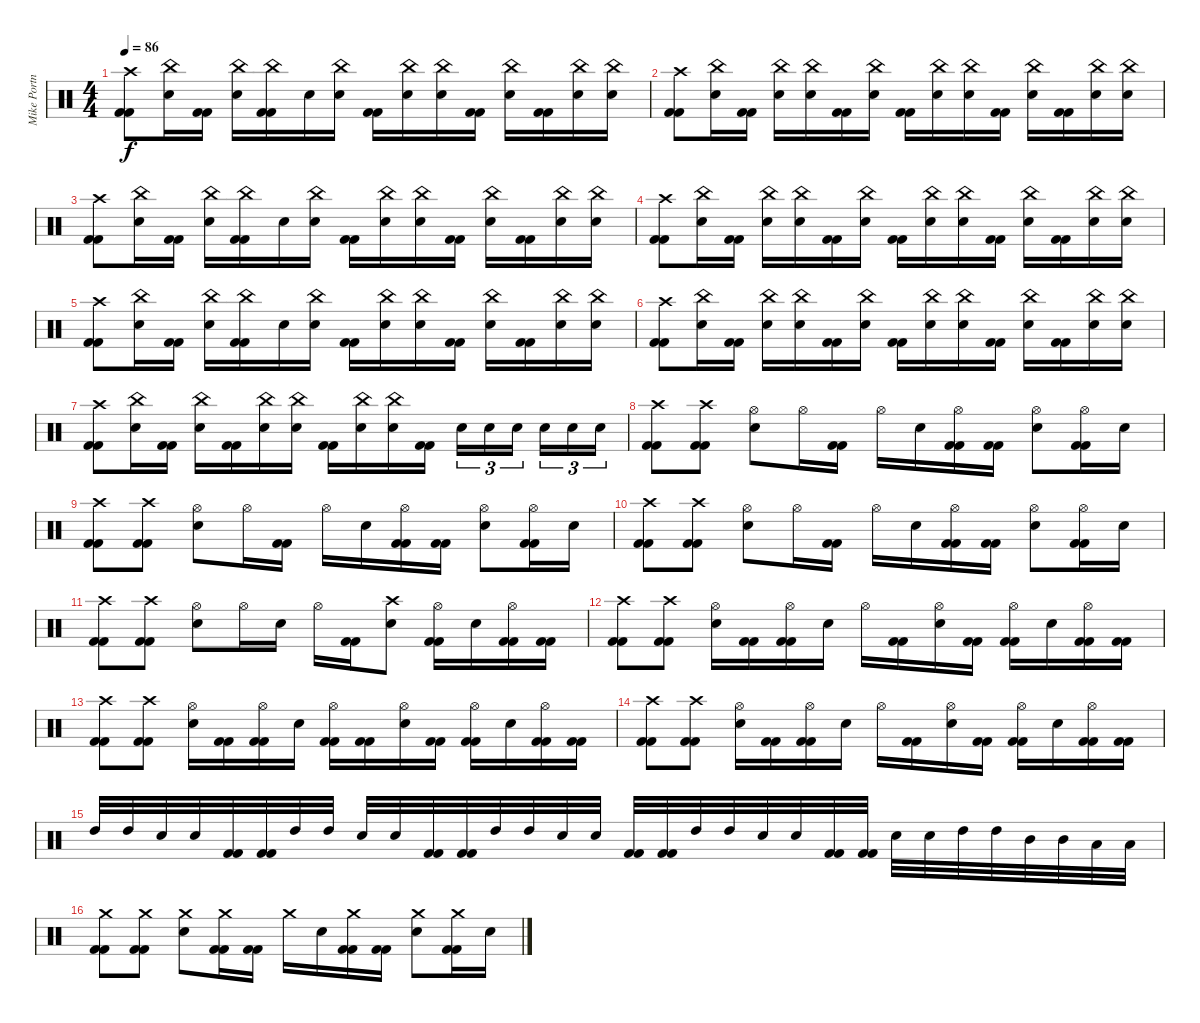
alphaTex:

\track ("Mike Portnoy - Drum" "Mike Portn") {instrument percussion}
\staff {score}
\articulation defaults
\ts (4 4)
\tempo 86
\clef neutral
\ks c
("Crash high (hit)" "Kick (hit) 2" "Kick (hit) 2").8{dy f} ("China (hit)" "Snare (hit) 2").16 ("Kick (hit) 2" "Kick (hit) 2").16 ("China (hit)" "Snare (hit) 2").16 ("China (hit)" "Kick (hit) 2" "Kick (hit) 2").16 "Snare (hit) 2".16 ("China (hit)" "Snare (hit) 2").16 ("Kick (hit) 2" "Kick (hit) 2").16 ("China (hit)" "Snare (hit) 2").16 ("China (hit)" "Snare (hit) 2").16 ("Kick (hit) 2" "Kick (hit) 2").16 ("China (hit)" "Snare (hit) 2").16 ("Kick (hit) 2" "Kick (hit) 2").16 ("China (hit)" "Snare (hit) 2").16 ("China (hit)" "Snare (hit) 2").16 |
("Crash high (hit)" "Kick (hit) 2" "Kick (hit) 2").8 ("China (hit)" "Snare (hit) 2").16 ("Kick (hit) 2" "Kick (hit) 2").16 ("China (hit)" "Snare (hit) 2").16 ("China (hit)" "Snare (hit) 2").16 ("Kick (hit) 2" "Kick (hit) 2").16 ("China (hit)" "Snare (hit) 2").16 ("Kick (hit) 2" "Kick (hit) 2").16 ("China (hit)" "Snare (hit) 2").16 ("China (hit)" "Snare (hit) 2").16 ("Kick (hit) 2" "Kick (hit) 2").16 ("China (hit)" "Snare (hit) 2").16 ("Kick (hit) 2" "Kick (hit) 2").16 ("China (hit)" "Snare (hit) 2").16 ("China (hit)" "Snare (hit) 2").16 |
("Crash high (hit)" "Kick (hit) 2" "Kick (hit) 2").8 ("China (hit)" "Snare (hit) 2").16 ("Kick (hit) 2" "Kick (hit) 2").16 ("China (hit)" "Snare (hit) 2").16 ("China (hit)" "Kick (hit) 2" "Kick (hit) 2").16 "Snare (hit) 2".16 ("China (hit)" "Snare (hit) 2").16 ("Kick (hit) 2" "Kick (hit) 2").16 ("China (hit)" "Snare (hit) 2").16 ("China (hit)" "Snare (hit) 2").16 ("Kick (hit) 2" "Kick (hit) 2").16 ("China (hit)" "Snare (hit) 2").16 ("Kick (hit) 2" "Kick (hit) 2").16 ("China (hit)" "Snare (hit) 2").16 ("China (hit)" "Snare (hit) 2").16 |
("Crash high (hit)" "Kick (hit) 2" "Kick (hit) 2").8 ("China (hit)" "Snare (hit) 2").16 ("Kick (hit) 2" "Kick (hit) 2").16 ("China (hit)" "Snare (hit) 2").16 ("China (hit)" "Snare (hit) 2").16 ("Kick (hit) 2" "Kick (hit) 2").16 ("China (hit)" "Snare (hit) 2").16 ("Kick (hit) 2" "Kick (hit) 2").16 ("China (hit)" "Snare (hit) 2").16 ("China (hit)" "Snare (hit) 2").16 ("Kick (hit) 2" "Kick (hit) 2").16 ("China (hit)" "Snare (hit) 2").16 ("Kick (hit) 2" "Kick (hit) 2").16 ("China (hit)" "Snare (hit) 2").16 ("China (hit)" "Snare (hit) 2").16 |
("Crash high (hit)" "Kick (hit) 2" "Kick (hit) 2").8 ("China (hit)" "Snare (hit) 2").16 ("Kick (hit) 2" "Kick (hit) 2").16 ("China (hit)" "Snare (hit) 2").16 ("China (hit)" "Kick (hit) 2" "Kick (hit) 2").16 "Snare (hit) 2".16 ("China (hit)" "Snare (hit) 2").16 ("Kick (hit) 2" "Kick (hit) 2").16 ("China (hit)" "Snare (hit) 2").16 ("China (hit)" "Snare (hit) 2").16 ("Kick (hit) 2" "Kick (hit) 2").16 ("China (hit)" "Snare (hit) 2").16 ("Kick (hit) 2" "Kick (hit) 2").16 ("China (hit)" "Snare (hit) 2").16 ("China (hit)" "Snare (hit) 2").16 |
("Crash high (hit)" "Kick (hit) 2" "Kick (hit) 2").8 ("China (hit)" "Snare (hit) 2").16 ("Kick (hit) 2" "Kick (hit) 2").16 ("China (hit)" "Snare (hit) 2").16 ("China (hit)" "Snare (hit) 2").16 ("Kick (hit) 2" "Kick (hit) 2").16 ("China (hit)" "Snare (hit) 2").16 ("Kick (hit) 2" "Kick (hit) 2").16 ("China (hit)" "Snare (hit) 2").16 ("China (hit)" "Snare (hit) 2").16 ("Kick (hit) 2" "Kick (hit) 2").16 ("China (hit)" "Snare (hit) 2").16 ("Kick (hit) 2" "Kick (hit) 2").16 ("China (hit)" "Snare (hit) 2").16 ("China (hit)" "Snare (hit) 2").16 |
("Crash high (hit)" "Kick (hit) 2" "Kick (hit) 2").8 ("China (hit)" "Snare (hit) 2").16 ("Kick (hit) 2" "Kick (hit) 2").16 ("China (hit)" "Snare (hit) 2").16 ("Kick (hit) 2" "Kick (hit) 2").16 ("China (hit)" "Snare (hit) 2").16 ("China (hit)" "Snare (hit) 2").16 ("Kick (hit) 2" "Kick (hit) 2").16 ("China (hit)" "Snare (hit) 2").16 ("China (hit)" "Snare (hit) 2").16 ("Kick (hit) 2" "Kick (hit) 2").16 "Snare (hit) 2".16{tu (3 2)} "Snare (hit) 2".16{tu (3 2)} "Snare (hit) 2".16{tu (3 2)} "Snare (hit) 2".16{tu (3 2)} "Snare (hit) 2".16{tu (3 2)} "Snare (hit) 2".16{tu (3 2)} |
("Crash high (hit)" "Kick (hit) 2" "Kick (hit) 2").8 ("Crash high (hit)" "Kick (hit) 2" "Kick (hit) 2").8 ("Hi-Hat (open)" "Snare (hit) 2").8 "Hi-Hat (open)".16 ("Kick (hit) 2" "Kick (hit) 2").16 "Hi-Hat (open)".16 "Snare (hit) 2".16 ("Hi-Hat (open)" "Kick (hit) 2" "Kick (hit) 2").16 ("Kick (hit) 2" "Kick (hit) 2").16 ("Hi-Hat (open)" "Snare (hit) 2").8 ("Hi-Hat (open)" "Kick (hit) 2" "Kick (hit) 2").16 "Snare (hit) 2".16 |
("Crash high (hit)" "Kick (hit) 2" "Kick (hit) 2").8 ("Crash high (hit)" "Kick (hit) 2" "Kick (hit) 2").8 ("Hi-Hat (open)" "Snare (hit) 2").8 "Hi-Hat (open)".16 ("Kick (hit) 2" "Kick (hit) 2").16 "Hi-Hat (open)".16 "Snare (hit) 2".16 ("Hi-Hat (open)" "Kick (hit) 2" "Kick (hit) 2").16 ("Kick (hit) 2" "Kick (hit) 2").16 ("Hi-Hat (open)" "Snare (hit) 2").8 ("Hi-Hat (open)" "Kick (hit) 2" "Kick (hit) 2").16 "Snare (hit) 2".16 |
("Crash high (hit)" "Kick (hit) 2" "Kick (hit) 2").8 ("Crash high (hit)" "Kick (hit) 2" "Kick (hit) 2").8 ("Hi-Hat (open)" "Snare (hit) 2").8 "Hi-Hat (open)".16 ("Kick (hit) 2" "Kick (hit) 2").16 "Hi-Hat (open)".16 "Snare (hit) 2".16 ("Hi-Hat (open)" "Kick (hit) 2" "Kick (hit) 2").16 ("Kick (hit) 2" "Kick (hit) 2").16 ("Hi-Hat (open)" "Snare (hit) 2").8 ("Hi-Hat (open)" "Kick (hit) 2" "Kick (hit) 2").16 "Snare (hit) 2".16 |
("Crash high (hit)" "Kick (hit) 2" "Kick (hit) 2").8 ("Crash high (hit)" "Kick (hit) 2" "Kick (hit) 2").8 ("Hi-Hat (open)" "Snare (hit) 2").8 "Hi-Hat (open)".16 "Snare (hit) 2".16 "Hi-Hat (open)".16 ("Kick (hit) 2" "Kick (hit) 2").16 ("Crash high (hit)" "Snare (hit) 2").8 ("Hi-Hat (open)" "Kick (hit) 2" "Kick (hit) 2").16 "Snare (hit) 2".16 ("Hi-Hat (open)" "Kick (hit) 2" "Kick (hit) 2").16 ("Kick (hit) 2" "Kick (hit) 2").16 |
("Crash high (hit)" "Kick (hit) 2" "Kick (hit) 2").8 ("Crash high (hit)" "Kick (hit) 2" "Kick (hit) 2").8 ("Hi-Hat (open)" "Snare (hit) 2").16 ("Kick (hit) 2" "Kick (hit) 2").16 ("Hi-Hat (open)" "Kick (hit) 2" "Kick (hit) 2").16 "Snare (hit) 2".16 "Hi-Hat (open)".16 ("Kick (hit) 2" "Kick (hit) 2").16 ("Hi-Hat (open)" "Snare (hit) 2").16 ("Kick (hit) 2" "Kick (hit) 2").16 ("Hi-Hat (open)" "Kick (hit) 2" "Kick (hit) 2").16 "Snare (hit) 2".16 ("Hi-Hat (open)" "Kick (hit) 2" "Kick (hit) 2").16 ("Kick (hit) 2" "Kick (hit) 2").16 |
("Crash high (hit)" "Kick (hit) 2" "Kick (hit) 2").8 ("Crash high (hit)" "Kick (hit) 2" "Kick (hit) 2").8 ("Hi-Hat (open)" "Snare (hit) 2").16 ("Kick (hit) 2" "Kick (hit) 2").16 ("Hi-Hat (open)" "Kick (hit) 2" "Kick (hit) 2").16 "Snare (hit) 2".16 ("Hi-Hat (open)" "Kick (hit) 2" "Kick (hit) 2").16 ("Kick (hit) 2" "Kick (hit) 2").16 ("Hi-Hat (open)" "Snare (hit) 2").16 ("Kick (hit) 2" "Kick (hit) 2").16 ("Hi-Hat (open)" "Kick (hit) 2" "Kick (hit) 2").16 "Snare (hit) 2".16 ("Hi-Hat (open)" "Kick (hit) 2" "Kick (hit) 2").16 ("Kick (hit) 2" "Kick (hit) 2").16 |
("Crash high (hit)" "Kick (hit) 2" "Kick (hit) 2").8 ("Crash high (hit)" "Kick (hit) 2" "Kick (hit) 2").8 ("Hi-Hat (open)" "Snare (hit) 2").16 ("Kick (hit) 2" "Kick (hit) 2").16 ("Hi-Hat (open)" "Kick (hit) 2" "Kick (hit) 2").16 "Snare (hit) 2".16 "Hi-Hat (open)".16 ("Kick (hit) 2" "Kick (hit) 2").16 ("Hi-Hat (open)" "Snare (hit) 2").16 ("Kick (hit) 2" "Kick (hit) 2").16 ("Hi-Hat (open)" "Kick (hit) 2" "Kick (hit) 2").16 "Snare (hit) 2".16 ("Hi-Hat (open)" "Kick (hit) 2" "Kick (hit) 2").16 ("Kick (hit) 2" "Kick (hit) 2").16 |
"High Tom (hit)".32 "High Tom (hit)".32 "Snare (hit) 2".32 "Snare (hit) 2".32 ("Kick (hit) 2" "Kick (hit) 2").32 ("Kick (hit) 2" "Kick (hit) 2").32 "High Tom (hit)".32 "High Tom (hit)".32 "Snare (hit) 2".32 "Snare (hit) 2".32 ("Kick (hit) 2" "Kick (hit) 2").32 ("Kick (hit) 2" "Kick (hit) 2").32 "High Tom (hit)".32 "High Tom (hit)".32 "Snare (hit) 2".32 "Snare (hit) 2".32 ("Kick (hit) 2" "Kick (hit) 2").32 ("Kick (hit) 2" "Kick (hit) 2").32 "High Tom (hit)".32 "High Tom (hit)".32 "Snare (hit) 2".32 "Snare (hit) 2".32 ("Kick (hit) 2" "Kick (hit) 2").32 ("Kick (hit) 2" "Kick (hit) 2").32 "Snare (hit) 2".32 "Snare (hit) 2".32 "High Tom (hit)".32 "High Tom (hit)".32 "Mid Tom (hit)".32 "Mid Tom (hit)".32 "Low Tom (hit)".32 "Low Tom (hit)".32 |
("Crash medium (hit)" "Kick (hit) 2" "Kick (hit) 2").8 ("Crash medium (hit)" "Kick (hit) 2" "Kick (hit) 2").8 ("Crash medium (hit)" "Snare (hit) 2").8 ("Crash medium (hit)" "Kick (hit) 2" "Kick (hit) 2").16 ("Kick (hit) 2" "Kick (hit) 2").16 "Crash medium (hit)".16 "Snare (hit) 2".16 ("Crash medium (hit)" "Kick (hit) 2" "Kick (hit) 2").16 ("Kick (hit) 2" "Kick (hit) 2").16 ("Crash medium (hit)" "Snare (hit) 2").8 ("Crash medium (hit)" "Kick (hit) 2" "Kick (hit) 2").16 "Snare (hit) 2".16
